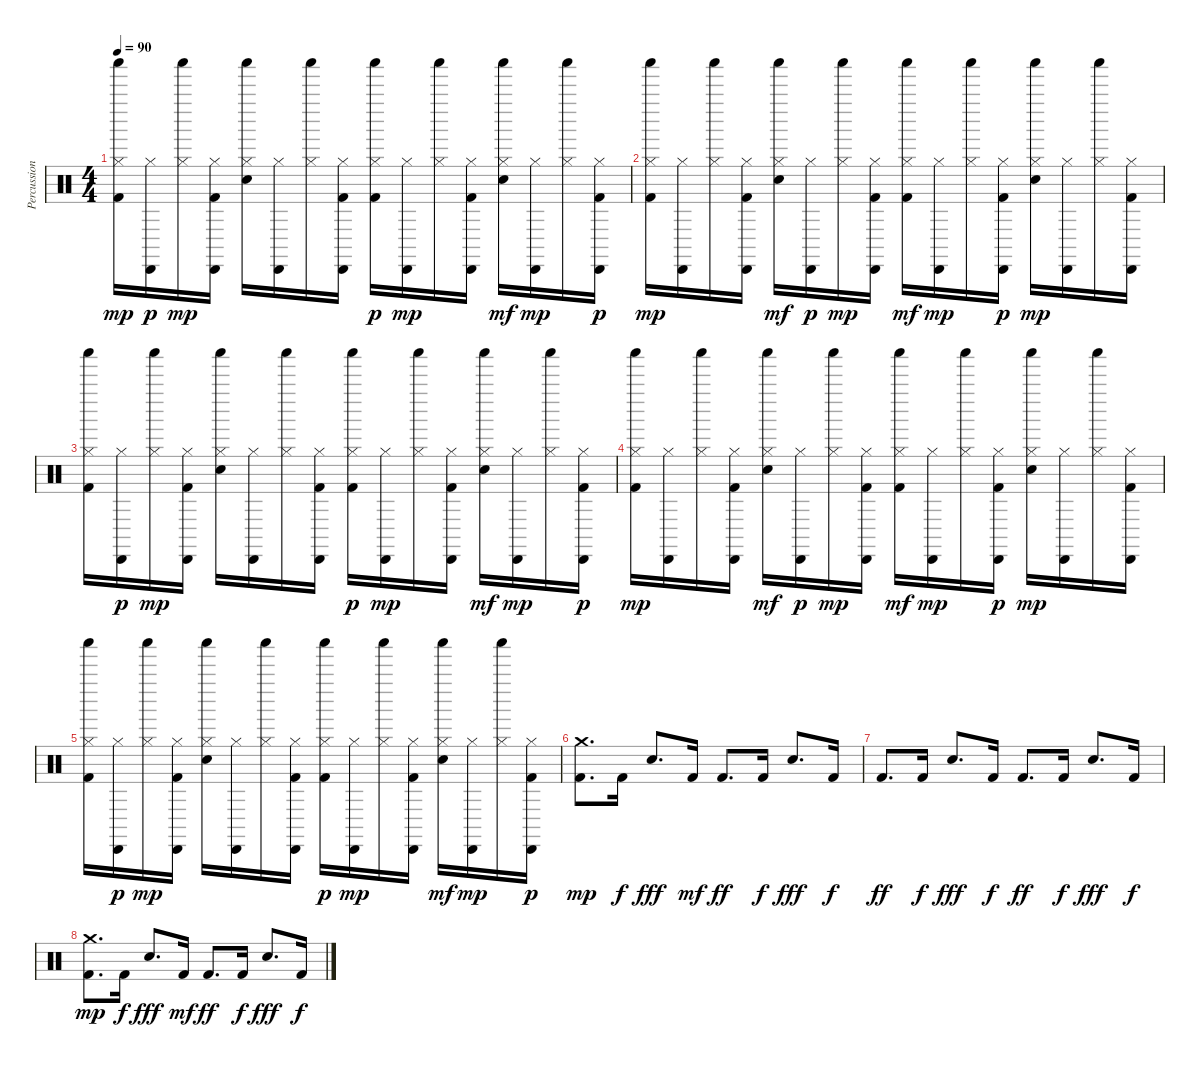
\track ("Percussions" "Percussion") {instrument percussion}
\staff {score}
\articulation defaults
\ts (4 4)
\tempo 90
\clef neutral
\ks c
("Kick (hit) 2" "Hi-Hat (closed)" "Shaker (hit)").16{dy mp} ("Hi-Hat (closed)" "Cabasa (hit)").16{dy p} ("Hi-Hat (closed)" "Shaker (hit)").16{dy mp} ("Kick (hit) 2" "Hi-Hat (closed)" "Cabasa (hit)").16 ("Electric Snare (hit)" "Hi-Hat (closed)" "Shaker (hit)").16 ("Hi-Hat (closed)" "Cabasa (hit)").16 ("Hi-Hat (closed)" "Shaker (hit)").16 ("Kick (hit) 2" "Hi-Hat (closed)" "Cabasa (hit)").16 ("Kick (hit) 2" "Hi-Hat (closed)" "Shaker (hit)").16{dy p} ("Hi-Hat (closed)" "Cabasa (hit)").16{dy mp} ("Hi-Hat (closed)" "Shaker (hit)").16 ("Kick (hit) 2" "Hi-Hat (closed)" "Cabasa (hit)").16 ("Electric Snare (hit)" "Hi-Hat (closed)" "Shaker (hit)").16{dy mf} ("Hi-Hat (closed)" "Cabasa (hit)").16{dy mp} ("Hi-Hat (closed)" "Shaker (hit)").16 ("Kick (hit) 2" "Hi-Hat (closed)" "Cabasa (hit)").16{dy p} |
("Kick (hit) 2" "Hi-Hat (closed)" "Shaker (hit)").16{dy mp} ("Hi-Hat (closed)" "Cabasa (hit)").16 ("Hi-Hat (closed)" "Shaker (hit)").16 ("Kick (hit) 2" "Hi-Hat (closed)" "Cabasa (hit)").16 ("Electric Snare (hit)" "Hi-Hat (closed)" "Shaker (hit)").16{dy mf} ("Hi-Hat (closed)" "Cabasa (hit)").16{dy p} ("Hi-Hat (closed)" "Shaker (hit)").16{dy mp} ("Kick (hit) 2" "Hi-Hat (closed)" "Cabasa (hit)").16 ("Kick (hit) 2" "Hi-Hat (closed)" "Shaker (hit)").16{dy mf} ("Hi-Hat (closed)" "Cabasa (hit)").16{dy mp} ("Hi-Hat (closed)" "Shaker (hit)").16 ("Kick (hit) 2" "Hi-Hat (closed)" "Cabasa (hit)").16{dy p} ("Electric Snare (hit)" "Hi-Hat (closed)" "Shaker (hit)").16{dy mp} ("Hi-Hat (closed)" "Cabasa (hit)").16 ("Hi-Hat (closed)" "Shaker (hit)").16 ("Kick (hit) 2" "Hi-Hat (closed)" "Cabasa (hit)").16 |
("Kick (hit) 2" "Hi-Hat (closed)" "Shaker (hit)").16 ("Hi-Hat (closed)" "Cabasa (hit)").16{dy p} ("Hi-Hat (closed)" "Shaker (hit)").16{dy mp} ("Kick (hit) 2" "Hi-Hat (closed)" "Cabasa (hit)").16 ("Electric Snare (hit)" "Hi-Hat (closed)" "Shaker (hit)").16 ("Hi-Hat (closed)" "Cabasa (hit)").16 ("Hi-Hat (closed)" "Shaker (hit)").16 ("Kick (hit) 2" "Hi-Hat (closed)" "Cabasa (hit)").16 ("Kick (hit) 2" "Hi-Hat (closed)" "Shaker (hit)").16{dy p} ("Hi-Hat (closed)" "Cabasa (hit)").16{dy mp} ("Hi-Hat (closed)" "Shaker (hit)").16 ("Kick (hit) 2" "Hi-Hat (closed)" "Cabasa (hit)").16 ("Electric Snare (hit)" "Hi-Hat (closed)" "Shaker (hit)").16{dy mf} ("Hi-Hat (closed)" "Cabasa (hit)").16{dy mp} ("Hi-Hat (closed)" "Shaker (hit)").16 ("Kick (hit) 2" "Hi-Hat (closed)" "Cabasa (hit)").16{dy p} |
("Kick (hit) 2" "Hi-Hat (closed)" "Shaker (hit)").16{dy mp} ("Hi-Hat (closed)" "Cabasa (hit)").16 ("Hi-Hat (closed)" "Shaker (hit)").16 ("Kick (hit) 2" "Hi-Hat (closed)" "Cabasa (hit)").16 ("Electric Snare (hit)" "Hi-Hat (closed)" "Shaker (hit)").16{dy mf} ("Hi-Hat (closed)" "Cabasa (hit)").16{dy p} ("Hi-Hat (closed)" "Shaker (hit)").16{dy mp} ("Kick (hit) 2" "Hi-Hat (closed)" "Cabasa (hit)").16 ("Kick (hit) 2" "Hi-Hat (closed)" "Shaker (hit)").16{dy mf} ("Hi-Hat (closed)" "Cabasa (hit)").16{dy mp} ("Hi-Hat (closed)" "Shaker (hit)").16 ("Kick (hit) 2" "Hi-Hat (closed)" "Cabasa (hit)").16{dy p} ("Electric Snare (hit)" "Hi-Hat (closed)" "Shaker (hit)").16{dy mp} ("Hi-Hat (closed)" "Cabasa (hit)").16 ("Hi-Hat (closed)" "Shaker (hit)").16 ("Kick (hit) 2" "Hi-Hat (closed)" "Cabasa (hit)").16 |
("Kick (hit) 2" "Hi-Hat (closed)" "Shaker (hit)").16 ("Hi-Hat (closed)" "Cabasa (hit)").16{dy p} ("Hi-Hat (closed)" "Shaker (hit)").16{dy mp} ("Kick (hit) 2" "Hi-Hat (closed)" "Cabasa (hit)").16 ("Electric Snare (hit)" "Hi-Hat (closed)" "Shaker (hit)").16 ("Hi-Hat (closed)" "Cabasa (hit)").16 ("Hi-Hat (closed)" "Shaker (hit)").16 ("Kick (hit) 2" "Hi-Hat (closed)" "Cabasa (hit)").16 ("Kick (hit) 2" "Hi-Hat (closed)" "Shaker (hit)").16{dy p} ("Hi-Hat (closed)" "Cabasa (hit)").16{dy mp} ("Hi-Hat (closed)" "Shaker (hit)").16 ("Kick (hit) 2" "Hi-Hat (closed)" "Cabasa (hit)").16 ("Electric Snare (hit)" "Hi-Hat (closed)" "Shaker (hit)").16{dy mf} ("Hi-Hat (closed)" "Cabasa (hit)").16{dy mp} ("Hi-Hat (closed)" "Shaker (hit)").16 ("Kick (hit) 2" "Hi-Hat (closed)" "Cabasa (hit)").16{dy p} |
("Kick (hit) 2" "Crash medium (hit)").8{d dy mp} "Kick (hit) 2".16{dy f} "Electric Snare (hit)".8{d dy fff} "Kick (hit) 2".16{dy mf} "Kick (hit) 2".8{d dy ff} "Kick (hit) 2".16{dy f} "Electric Snare (hit)".8{d dy fff} "Kick (hit) 2".16{dy f} |
"Kick (hit) 2".8{d dy ff} "Kick (hit) 2".16{dy f} "Electric Snare (hit)".8{d dy fff} "Kick (hit) 2".16{dy f} "Kick (hit) 2".8{d dy ff} "Kick (hit) 2".16{dy f} "Electric Snare (hit)".8{d dy fff} "Kick (hit) 2".16{dy f} |
("Kick (hit) 2" "Crash medium (hit)").8{d dy mp} "Kick (hit) 2".16{dy f} "Electric Snare (hit)".8{d dy fff} "Kick (hit) 2".16{dy mf} "Kick (hit) 2".8{d dy ff} "Kick (hit) 2".16{dy f} "Electric Snare (hit)".8{d dy fff} "Kick (hit) 2".16{dy f}
